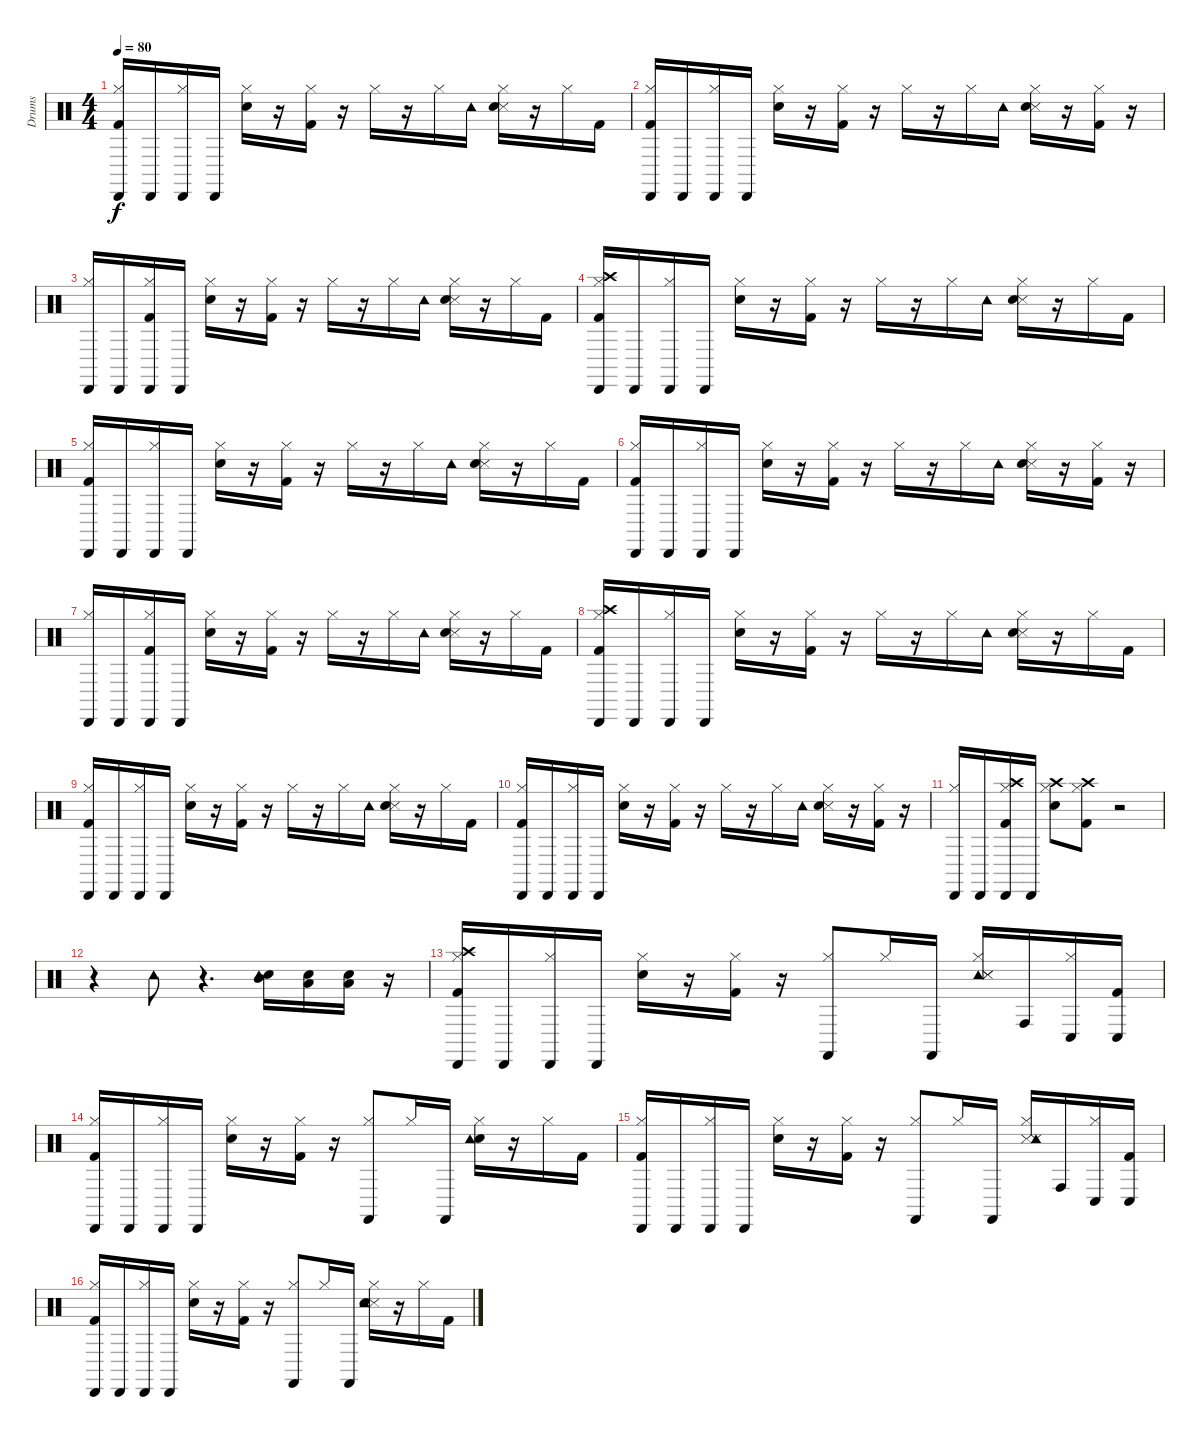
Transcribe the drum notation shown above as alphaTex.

\track ("Drums" "Drums") {instrument percussion}
\staff {score}
\articulation defaults
\ts (4 4)
\tempo 80
\clef neutral
\ks c
("Hi-Hat (closed)" "Kick (hit) 2" "Cabasa (hit)").16{dy f} "Cabasa (hit)".16 ("Cabasa (hit)" "Hi-Hat (closed)").16 "Cabasa (hit)".16 ("Hi-Hat (closed)" "Electric Snare (hit)").16 r.16 ("Kick (hit) 2" "Hi-Hat (closed)").16 r.16 "Hi-Hat (closed)".16 r.16 "Hi-Hat (closed)".16 "Tambourine (hit)".16 ("Metronome (hit)" "Snare (hit) 2" "Hi-Hat (closed)").16 r.16 "Hi-Hat (closed)".16 "Kick (hit) 2".16 |
("Hi-Hat (closed)" "Kick (hit) 2" "Cabasa (hit)").16 "Cabasa (hit)".16 ("Cabasa (hit)" "Hi-Hat (closed)").16 "Cabasa (hit)".16 ("Hi-Hat (closed)" "Electric Snare (hit)").16 r.16 ("Kick (hit) 2" "Hi-Hat (closed)").16 r.16 "Hi-Hat (closed)".16 r.16 "Hi-Hat (closed)".16 "Tambourine (hit)".16 ("Metronome (hit)" "Snare (hit) 2" "Hi-Hat (closed)").16 r.16 ("Kick (hit) 2" "Hi-Hat (closed)").16 r.16 |
("Hi-Hat (closed)" "Cabasa (hit)").16 "Cabasa (hit)".16 ("Kick (hit) 2" "Cabasa (hit)" "Hi-Hat (closed)").16 "Cabasa (hit)".16 ("Hi-Hat (closed)" "Electric Snare (hit)").16 r.16 ("Kick (hit) 2" "Hi-Hat (closed)").16 r.16 "Hi-Hat (closed)".16 r.16 "Hi-Hat (closed)".16 "Tambourine (hit)".16 ("Metronome (hit)" "Snare (hit) 2" "Hi-Hat (closed)").16 r.16 "Hi-Hat (closed)".16 "Kick (hit) 2".16 |
("Crash high (hit)" "Hi-Hat (closed)" "Kick (hit) 2" "Cabasa (hit)").16 "Cabasa (hit)".16 ("Cabasa (hit)" "Hi-Hat (closed)").16 "Cabasa (hit)".16 ("Hi-Hat (closed)" "Electric Snare (hit)").16 r.16 ("Kick (hit) 2" "Hi-Hat (closed)").16 r.16 "Hi-Hat (closed)".16 r.16 "Hi-Hat (closed)".16 "Tambourine (hit)".16 ("Metronome (hit)" "Snare (hit) 2" "Hi-Hat (closed)").16 r.16 "Hi-Hat (closed)".16 "Kick (hit) 2".16 |
("Hi-Hat (closed)" "Kick (hit) 2" "Cabasa (hit)").16 "Cabasa (hit)".16 ("Cabasa (hit)" "Hi-Hat (closed)").16 "Cabasa (hit)".16 ("Hi-Hat (closed)" "Electric Snare (hit)").16 r.16 ("Kick (hit) 2" "Hi-Hat (closed)").16 r.16 "Hi-Hat (closed)".16 r.16 "Hi-Hat (closed)".16 "Tambourine (hit)".16 ("Metronome (hit)" "Snare (hit) 2" "Hi-Hat (closed)").16 r.16 "Hi-Hat (closed)".16 "Kick (hit) 2".16 |
("Hi-Hat (closed)" "Kick (hit) 2" "Cabasa (hit)").16 "Cabasa (hit)".16 ("Cabasa (hit)" "Hi-Hat (closed)").16 "Cabasa (hit)".16 ("Hi-Hat (closed)" "Electric Snare (hit)").16 r.16 ("Kick (hit) 2" "Hi-Hat (closed)").16 r.16 "Hi-Hat (closed)".16 r.16 "Hi-Hat (closed)".16 "Tambourine (hit)".16 ("Metronome (hit)" "Snare (hit) 2" "Hi-Hat (closed)").16 r.16 ("Kick (hit) 2" "Hi-Hat (closed)").16 r.16 |
("Hi-Hat (closed)" "Cabasa (hit)").16 "Cabasa (hit)".16 ("Kick (hit) 2" "Cabasa (hit)" "Hi-Hat (closed)").16 "Cabasa (hit)".16 ("Hi-Hat (closed)" "Electric Snare (hit)").16 r.16 ("Kick (hit) 2" "Hi-Hat (closed)").16 r.16 "Hi-Hat (closed)".16 r.16 "Hi-Hat (closed)".16 "Tambourine (hit)".16 ("Metronome (hit)" "Snare (hit) 2" "Hi-Hat (closed)").16 r.16 "Hi-Hat (closed)".16 "Kick (hit) 2".16 |
("Crash high (hit)" "Hi-Hat (closed)" "Kick (hit) 2" "Cabasa (hit)").16 "Cabasa (hit)".16 ("Cabasa (hit)" "Hi-Hat (closed)").16 "Cabasa (hit)".16 ("Hi-Hat (closed)" "Electric Snare (hit)").16 r.16 ("Kick (hit) 2" "Hi-Hat (closed)").16 r.16 "Hi-Hat (closed)".16 r.16 "Hi-Hat (closed)".16 "Tambourine (hit)".16 ("Metronome (hit)" "Snare (hit) 2" "Hi-Hat (closed)").16 r.16 "Hi-Hat (closed)".16 "Kick (hit) 2".16 |
("Hi-Hat (closed)" "Kick (hit) 2" "Cabasa (hit)").16 "Cabasa (hit)".16 ("Cabasa (hit)" "Hi-Hat (closed)").16 "Cabasa (hit)".16 ("Hi-Hat (closed)" "Electric Snare (hit)").16 r.16 ("Kick (hit) 2" "Hi-Hat (closed)").16 r.16 "Hi-Hat (closed)".16 r.16 "Hi-Hat (closed)".16 "Tambourine (hit)".16 ("Metronome (hit)" "Snare (hit) 2" "Hi-Hat (closed)").16 r.16 "Hi-Hat (closed)".16 "Kick (hit) 2".16 |
("Hi-Hat (closed)" "Kick (hit) 2" "Cabasa (hit)").16 "Cabasa (hit)".16 ("Cabasa (hit)" "Hi-Hat (closed)").16 "Cabasa (hit)".16 ("Hi-Hat (closed)" "Electric Snare (hit)").16 r.16 ("Kick (hit) 2" "Hi-Hat (closed)").16 r.16 "Hi-Hat (closed)".16 r.16 "Hi-Hat (closed)".16 "Tambourine (hit)".16 ("Metronome (hit)" "Snare (hit) 2" "Hi-Hat (closed)").16 r.16 ("Kick (hit) 2" "Hi-Hat (closed)").16 r.16 |
("Hi-Hat (closed)" "Cabasa (hit)").16 "Cabasa (hit)".16 ("Crash high (hit)" "Kick (hit) 2" "Cabasa (hit)" "Hi-Hat (closed)").16 "Cabasa (hit)".16 ("Crash high (hit)" "Hi-Hat (closed)" "Electric Snare (hit)").8 ("Crash high (hit)" "Kick (hit) 2" "Hi-Hat (closed)").8 r.2 |
r.4 "Tambourine (hit)".8 r.4{d} ("Mid Tom (hit)" "Snare (hit) 2" "Tambourine (hit)").16 ("Low Tom (hit)" "Snare (hit) 2").16 ("Low Tom (hit)" "Snare (hit) 2").16 r.16 |
("Crash high (hit)" "Cabasa (hit)" "Hi-Hat (closed)" "Kick (hit) 2").16 "Cabasa (hit)".16 ("Cabasa (hit)" "Hi-Hat (closed)").16 "Cabasa (hit)".16 ("Hi-Hat (closed)" "Electric Snare (hit)").16 r.16 ("Kick (hit) 2" "Hi-Hat (closed)").16 r.16 ("Castanets (hit)" "Hi-Hat (closed)").8 "Hi-Hat (closed)".16 "Castanets (hit)".16 ("Tambourine (hit)" "Metronome (hit)" "Hi-Hat (closed)" "Snare (side stick) 3").16 "Conga high (hit)".16 ("Hi-Hat (closed)" "Conga low (hit)").16 ("Kick (hit) 2" "Conga low (hit)").16 |
("Hi-Hat (closed)" "Kick (hit) 2" "Cabasa (hit)").16 "Cabasa (hit)".16 ("Hi-Hat (closed)" "Cabasa (hit)").16 "Cabasa (hit)".16 ("Hi-Hat (closed)" "Electric Snare (hit)").16 r.16 ("Kick (hit) 2" "Hi-Hat (closed)").16 r.16 ("Castanets (hit)" "Hi-Hat (closed)").8 "Hi-Hat (closed)".16 "Castanets (hit)".16 ("Snare (hit) 2" "Tambourine (hit)" "Hi-Hat (closed)").16 r.16 "Hi-Hat (closed)".16 "Kick (hit) 2".16 |
("Hi-Hat (closed)" "Kick (hit) 2" "Cabasa (hit)").16 "Cabasa (hit)".16 ("Cabasa (hit)" "Hi-Hat (closed)").16 "Cabasa (hit)".16 ("Hi-Hat (closed)" "Electric Snare (hit)").16 r.16 ("Kick (hit) 2" "Hi-Hat (closed)").16 r.16 ("Castanets (hit)" "Hi-Hat (closed)").8 "Hi-Hat (closed)".16 "Castanets (hit)".16 ("Metronome (hit)" "Snare (side stick) 3" "Hi-Hat (closed)" "Tambourine (hit)").16 "Conga high (hit)".16 ("Hi-Hat (closed)" "Conga low (hit)").16 ("Kick (hit) 2" "Conga low (hit)").16 |
("Hi-Hat (closed)" "Kick (hit) 2" "Cabasa (hit)").16 "Cabasa (hit)".16 ("Cabasa (hit)" "Hi-Hat (closed)").16 "Cabasa (hit)".16 ("Electric Snare (hit)" "Hi-Hat (closed)").16 r.16 ("Hi-Hat (closed)" "Kick (hit) 2").16 r.16 ("Hi-Hat (closed)" "Castanets (hit)").8 "Hi-Hat (closed)".16 "Castanets (hit)".16 ("Metronome (hit)" "Snare (hit) 2" "Tambourine (hit)" "Hi-Hat (closed)").16 r.16 "Hi-Hat (closed)".16 "Kick (hit) 2".16
